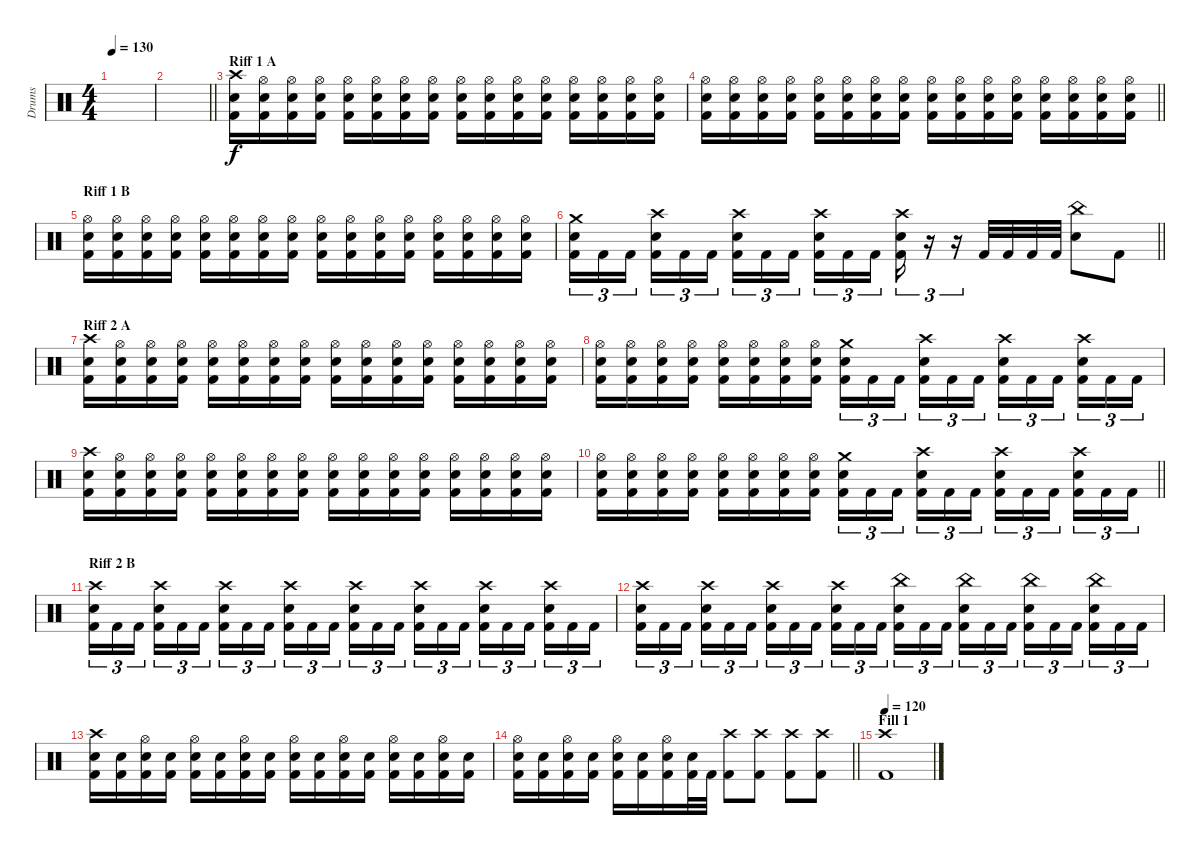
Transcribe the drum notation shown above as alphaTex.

\track ("Drums" "Drums") {instrument percussion}
\staff {score}
\articulation defaults
\ts (4 4)
\tempo 130
\clef neutral
\ks c
|
\barLineRight lightlight
|
\section ("" "Riff 1 A")
("Crash high (hit)" "Electric Snare (hit)" "Kick (hit) 2").16 ("Hi-Hat (open)" "Electric Snare (hit)" "Kick (hit) 2").16 ("Hi-Hat (open)" "Electric Snare (hit)" "Kick (hit) 2").16 ("Hi-Hat (open)" "Electric Snare (hit)" "Kick (hit) 2").16 ("Hi-Hat (open)" "Electric Snare (hit)" "Kick (hit) 2").16 ("Hi-Hat (open)" "Electric Snare (hit)" "Kick (hit) 2").16 ("Hi-Hat (open)" "Electric Snare (hit)" "Kick (hit) 2").16 ("Hi-Hat (open)" "Electric Snare (hit)" "Kick (hit) 2").16 ("Hi-Hat (open)" "Electric Snare (hit)" "Kick (hit) 2").16 ("Hi-Hat (open)" "Electric Snare (hit)" "Kick (hit) 2").16 ("Hi-Hat (open)" "Electric Snare (hit)" "Kick (hit) 2").16 ("Hi-Hat (open)" "Electric Snare (hit)" "Kick (hit) 2").16 ("Hi-Hat (open)" "Electric Snare (hit)" "Kick (hit) 2").16 ("Hi-Hat (open)" "Electric Snare (hit)" "Kick (hit) 2").16 ("Hi-Hat (open)" "Electric Snare (hit)" "Kick (hit) 2").16 ("Hi-Hat (open)" "Electric Snare (hit)" "Kick (hit) 2").16 |
\barLineRight lightlight
("Hi-Hat (open)" "Electric Snare (hit)" "Kick (hit) 2").16 ("Hi-Hat (open)" "Electric Snare (hit)" "Kick (hit) 2").16 ("Hi-Hat (open)" "Electric Snare (hit)" "Kick (hit) 2").16 ("Hi-Hat (open)" "Electric Snare (hit)" "Kick (hit) 2").16 ("Hi-Hat (open)" "Electric Snare (hit)" "Kick (hit) 2").16 ("Hi-Hat (open)" "Electric Snare (hit)" "Kick (hit) 2").16 ("Hi-Hat (open)" "Electric Snare (hit)" "Kick (hit) 2").16 ("Hi-Hat (open)" "Electric Snare (hit)" "Kick (hit) 2").16 ("Hi-Hat (open)" "Electric Snare (hit)" "Kick (hit) 2").16 ("Hi-Hat (open)" "Electric Snare (hit)" "Kick (hit) 2").16 ("Hi-Hat (open)" "Electric Snare (hit)" "Kick (hit) 2").16 ("Hi-Hat (open)" "Electric Snare (hit)" "Kick (hit) 2").16 ("Hi-Hat (open)" "Electric Snare (hit)" "Kick (hit) 2").16 ("Hi-Hat (open)" "Electric Snare (hit)" "Kick (hit) 2").16 ("Hi-Hat (open)" "Electric Snare (hit)" "Kick (hit) 2").16 ("Hi-Hat (open)" "Electric Snare (hit)" "Kick (hit) 2").16 |
\section ("" "Riff 1 B")
("Hi-Hat (open)" "Electric Snare (hit)" "Kick (hit) 2").16 ("Hi-Hat (open)" "Electric Snare (hit)" "Kick (hit) 2").16 ("Hi-Hat (open)" "Electric Snare (hit)" "Kick (hit) 2").16 ("Hi-Hat (open)" "Electric Snare (hit)" "Kick (hit) 2").16 ("Hi-Hat (open)" "Electric Snare (hit)" "Kick (hit) 2").16 ("Hi-Hat (open)" "Electric Snare (hit)" "Kick (hit) 2").16 ("Hi-Hat (open)" "Electric Snare (hit)" "Kick (hit) 2").16 ("Hi-Hat (open)" "Electric Snare (hit)" "Kick (hit) 2").16 ("Hi-Hat (open)" "Electric Snare (hit)" "Kick (hit) 2").16 ("Hi-Hat (open)" "Electric Snare (hit)" "Kick (hit) 2").16 ("Hi-Hat (open)" "Electric Snare (hit)" "Kick (hit) 2").16 ("Hi-Hat (open)" "Electric Snare (hit)" "Kick (hit) 2").16 ("Hi-Hat (open)" "Electric Snare (hit)" "Kick (hit) 2").16 ("Hi-Hat (open)" "Electric Snare (hit)" "Kick (hit) 2").16 ("Hi-Hat (open)" "Electric Snare (hit)" "Kick (hit) 2").16 ("Hi-Hat (open)" "Electric Snare (hit)" "Kick (hit) 2").16 |
\barLineRight lightlight
("Crash medium (hit)" "Electric Snare (hit)" "Kick (hit) 2").16{tu (3 2)} "Kick (hit) 2".16{tu (3 2)} "Kick (hit) 2".16{tu (3 2)} ("Crash high (hit)" "Electric Snare (hit)" "Kick (hit) 2").16{tu (3 2)} "Kick (hit) 2".16{tu (3 2)} "Kick (hit) 2".16{tu (3 2)} ("Crash high (hit)" "Electric Snare (hit)" "Kick (hit) 2").16{tu (3 2)} "Kick (hit) 2".16{tu (3 2)} "Kick (hit) 2".16{tu (3 2)} ("Crash high (hit)" "Electric Snare (hit)" "Kick (hit) 2").16{tu (3 2)} "Kick (hit) 2".16{tu (3 2)} "Kick (hit) 2".16{tu (3 2)} ("Crash high (hit)" "Electric Snare (hit)" "Kick (hit) 2").16{tu (3 2)} r.16{tu (3 2)} r.16{tu (3 2)} "Kick (hit) 2".32 "Kick (hit) 2".32 "Kick (hit) 2".32 "Kick (hit) 2".32 ("China (hit)" "Electric Snare (hit)").8 "Kick (hit) 2".8 |
\section ("" "Riff 2 A")
("Crash high (hit)" "Electric Snare (hit)" "Kick (hit) 2").16 ("Hi-Hat (open)" "Electric Snare (hit)" "Kick (hit) 2").16 ("Hi-Hat (open)" "Electric Snare (hit)" "Kick (hit) 2").16 ("Hi-Hat (open)" "Electric Snare (hit)" "Kick (hit) 2").16 ("Hi-Hat (open)" "Electric Snare (hit)" "Kick (hit) 2").16 ("Hi-Hat (open)" "Electric Snare (hit)" "Kick (hit) 2").16 ("Hi-Hat (open)" "Electric Snare (hit)" "Kick (hit) 2").16 ("Hi-Hat (open)" "Electric Snare (hit)" "Kick (hit) 2").16 ("Hi-Hat (open)" "Electric Snare (hit)" "Kick (hit) 2").16 ("Hi-Hat (open)" "Electric Snare (hit)" "Kick (hit) 2").16 ("Hi-Hat (open)" "Electric Snare (hit)" "Kick (hit) 2").16 ("Hi-Hat (open)" "Electric Snare (hit)" "Kick (hit) 2").16 ("Hi-Hat (open)" "Electric Snare (hit)" "Kick (hit) 2").16 ("Hi-Hat (open)" "Electric Snare (hit)" "Kick (hit) 2").16 ("Hi-Hat (open)" "Electric Snare (hit)" "Kick (hit) 2").16 ("Hi-Hat (open)" "Electric Snare (hit)" "Kick (hit) 2").16 |
("Hi-Hat (open)" "Electric Snare (hit)" "Kick (hit) 2").16 ("Hi-Hat (open)" "Electric Snare (hit)" "Kick (hit) 2").16 ("Hi-Hat (open)" "Electric Snare (hit)" "Kick (hit) 2").16 ("Hi-Hat (open)" "Electric Snare (hit)" "Kick (hit) 2").16 ("Hi-Hat (open)" "Electric Snare (hit)" "Kick (hit) 2").16 ("Hi-Hat (open)" "Electric Snare (hit)" "Kick (hit) 2").16 ("Hi-Hat (open)" "Electric Snare (hit)" "Kick (hit) 2").16 ("Hi-Hat (open)" "Electric Snare (hit)" "Kick (hit) 2").16 ("Crash medium (hit)" "Electric Snare (hit)" "Kick (hit) 2").16{tu (3 2)} "Kick (hit) 2".16{tu (3 2)} "Kick (hit) 2".16{tu (3 2)} ("Crash high (hit)" "Electric Snare (hit)" "Kick (hit) 2").16{tu (3 2)} "Kick (hit) 2".16{tu (3 2)} "Kick (hit) 2".16{tu (3 2)} ("Crash high (hit)" "Electric Snare (hit)" "Kick (hit) 2").16{tu (3 2)} "Kick (hit) 2".16{tu (3 2)} "Kick (hit) 2".16{tu (3 2)} ("Crash high (hit)" "Electric Snare (hit)" "Kick (hit) 2").16{tu (3 2)} "Kick (hit) 2".16{tu (3 2)} "Kick (hit) 2".16{tu (3 2)} |
("Crash high (hit)" "Electric Snare (hit)" "Kick (hit) 2").16 ("Hi-Hat (open)" "Electric Snare (hit)" "Kick (hit) 2").16 ("Hi-Hat (open)" "Electric Snare (hit)" "Kick (hit) 2").16 ("Hi-Hat (open)" "Electric Snare (hit)" "Kick (hit) 2").16 ("Hi-Hat (open)" "Electric Snare (hit)" "Kick (hit) 2").16 ("Hi-Hat (open)" "Electric Snare (hit)" "Kick (hit) 2").16 ("Hi-Hat (open)" "Electric Snare (hit)" "Kick (hit) 2").16 ("Hi-Hat (open)" "Electric Snare (hit)" "Kick (hit) 2").16 ("Hi-Hat (open)" "Electric Snare (hit)" "Kick (hit) 2").16 ("Hi-Hat (open)" "Electric Snare (hit)" "Kick (hit) 2").16 ("Hi-Hat (open)" "Electric Snare (hit)" "Kick (hit) 2").16 ("Hi-Hat (open)" "Electric Snare (hit)" "Kick (hit) 2").16 ("Hi-Hat (open)" "Electric Snare (hit)" "Kick (hit) 2").16 ("Hi-Hat (open)" "Electric Snare (hit)" "Kick (hit) 2").16 ("Hi-Hat (open)" "Electric Snare (hit)" "Kick (hit) 2").16 ("Hi-Hat (open)" "Electric Snare (hit)" "Kick (hit) 2").16 |
\barLineRight lightlight
("Hi-Hat (open)" "Electric Snare (hit)" "Kick (hit) 2").16 ("Hi-Hat (open)" "Electric Snare (hit)" "Kick (hit) 2").16 ("Hi-Hat (open)" "Electric Snare (hit)" "Kick (hit) 2").16 ("Hi-Hat (open)" "Electric Snare (hit)" "Kick (hit) 2").16 ("Hi-Hat (open)" "Electric Snare (hit)" "Kick (hit) 2").16 ("Hi-Hat (open)" "Electric Snare (hit)" "Kick (hit) 2").16 ("Hi-Hat (open)" "Electric Snare (hit)" "Kick (hit) 2").16 ("Hi-Hat (open)" "Electric Snare (hit)" "Kick (hit) 2").16 ("Crash medium (hit)" "Electric Snare (hit)" "Kick (hit) 2").16{tu (3 2)} "Kick (hit) 2".16{tu (3 2)} "Kick (hit) 2".16{tu (3 2)} ("Crash high (hit)" "Electric Snare (hit)" "Kick (hit) 2").16{tu (3 2)} "Kick (hit) 2".16{tu (3 2)} "Kick (hit) 2".16{tu (3 2)} ("Crash high (hit)" "Electric Snare (hit)" "Kick (hit) 2").16{tu (3 2)} "Kick (hit) 2".16{tu (3 2)} "Kick (hit) 2".16{tu (3 2)} ("Crash high (hit)" "Electric Snare (hit)" "Kick (hit) 2").16{tu (3 2)} "Kick (hit) 2".16{tu (3 2)} "Kick (hit) 2".16{tu (3 2)} |
\section ("" "Riff 2 B")
("Crash high (hit)" "Electric Snare (hit)" "Kick (hit) 2").16{tu (3 2)} "Kick (hit) 2".16{tu (3 2)} "Kick (hit) 2".16{tu (3 2)} ("Crash high (hit)" "Electric Snare (hit)" "Kick (hit) 2").16{tu (3 2)} "Kick (hit) 2".16{tu (3 2)} "Kick (hit) 2".16{tu (3 2)} ("Crash high (hit)" "Electric Snare (hit)" "Kick (hit) 2").16{tu (3 2)} "Kick (hit) 2".16{tu (3 2)} "Kick (hit) 2".16{tu (3 2)} ("Crash high (hit)" "Electric Snare (hit)" "Kick (hit) 2").16{tu (3 2)} "Kick (hit) 2".16{tu (3 2)} "Kick (hit) 2".16{tu (3 2)} ("Crash high (hit)" "Electric Snare (hit)" "Kick (hit) 2").16{tu (3 2)} "Kick (hit) 2".16{tu (3 2)} "Kick (hit) 2".16{tu (3 2)} ("Crash high (hit)" "Electric Snare (hit)" "Kick (hit) 2").16{tu (3 2)} "Kick (hit) 2".16{tu (3 2)} "Kick (hit) 2".16{tu (3 2)} ("Crash high (hit)" "Electric Snare (hit)" "Kick (hit) 2").16{tu (3 2)} "Kick (hit) 2".16{tu (3 2)} "Kick (hit) 2".16{tu (3 2)} ("Crash high (hit)" "Electric Snare (hit)" "Kick (hit) 2").16{tu (3 2)} "Kick (hit) 2".16{tu (3 2)} "Kick (hit) 2".16{tu (3 2)} |
("Crash high (hit)" "Electric Snare (hit)" "Kick (hit) 2").16{tu (3 2)} "Kick (hit) 2".16{tu (3 2)} "Kick (hit) 2".16{tu (3 2)} ("Crash high (hit)" "Electric Snare (hit)" "Kick (hit) 2").16{tu (3 2)} "Kick (hit) 2".16{tu (3 2)} "Kick (hit) 2".16{tu (3 2)} ("Crash high (hit)" "Electric Snare (hit)" "Kick (hit) 2").16{tu (3 2)} "Kick (hit) 2".16{tu (3 2)} "Kick (hit) 2".16{tu (3 2)} ("Crash high (hit)" "Electric Snare (hit)" "Kick (hit) 2").16{tu (3 2)} "Kick (hit) 2".16{tu (3 2)} "Kick (hit) 2".16{tu (3 2)} ("China (hit)" "Electric Snare (hit)" "Kick (hit) 2").16{tu (3 2)} "Kick (hit) 2".16{tu (3 2)} "Kick (hit) 2".16{tu (3 2)} ("China (hit)" "Electric Snare (hit)" "Kick (hit) 2").16{tu (3 2)} "Kick (hit) 2".16{tu (3 2)} "Kick (hit) 2".16{tu (3 2)} ("China (hit)" "Electric Snare (hit)" "Kick (hit) 2").16{tu (3 2)} "Kick (hit) 2".16{tu (3 2)} "Kick (hit) 2".16{tu (3 2)} ("China (hit)" "Electric Snare (hit)" "Kick (hit) 2").16{tu (3 2)} "Kick (hit) 2".16{tu (3 2)} "Kick (hit) 2".16{tu (3 2)} |
("Crash high (hit)" "Electric Snare (hit)" "Kick (hit) 2").16 ("Electric Snare (hit)" "Kick (hit) 2").16 ("Hi-Hat (open)" "Electric Snare (hit)" "Kick (hit) 2").16 ("Electric Snare (hit)" "Kick (hit) 2").16 ("Hi-Hat (open)" "Electric Snare (hit)" "Kick (hit) 2").16 ("Electric Snare (hit)" "Kick (hit) 2").16 ("Hi-Hat (open)" "Electric Snare (hit)" "Kick (hit) 2").16 ("Electric Snare (hit)" "Kick (hit) 2").16 ("Hi-Hat (open)" "Electric Snare (hit)" "Kick (hit) 2").16 ("Electric Snare (hit)" "Kick (hit) 2").16 ("Hi-Hat (open)" "Electric Snare (hit)" "Kick (hit) 2").16 ("Electric Snare (hit)" "Kick (hit) 2").16 ("Hi-Hat (open)" "Electric Snare (hit)" "Kick (hit) 2").16 ("Electric Snare (hit)" "Kick (hit) 2").16 ("Hi-Hat (open)" "Electric Snare (hit)" "Kick (hit) 2").16 ("Electric Snare (hit)" "Kick (hit) 2").16 |
\barLineRight lightlight
("Hi-Hat (open)" "Electric Snare (hit)" "Kick (hit) 2").16 ("Electric Snare (hit)" "Kick (hit) 2").16 ("Hi-Hat (open)" "Electric Snare (hit)" "Kick (hit) 2").16 ("Electric Snare (hit)" "Kick (hit) 2").16 ("Hi-Hat (open)" "Electric Snare (hit)" "Kick (hit) 2").16 ("Electric Snare (hit)" "Kick (hit) 2").16 ("Hi-Hat (open)" "Electric Snare (hit)" "Kick (hit) 2").16 ("Electric Snare (hit)" "Kick (hit) 2").32 "Kick (hit) 2".32 ("Crash high (hit)" "Kick (hit) 2").8 ("Crash high (hit)" "Kick (hit) 2").8 ("Crash high (hit)" "Kick (hit) 2").8 ("Crash high (hit)" "Kick (hit) 2").8 |
\section ("" "Fill 1")
\tempo 120
("Crash high (hit)" "Kick (hit) 2").1
